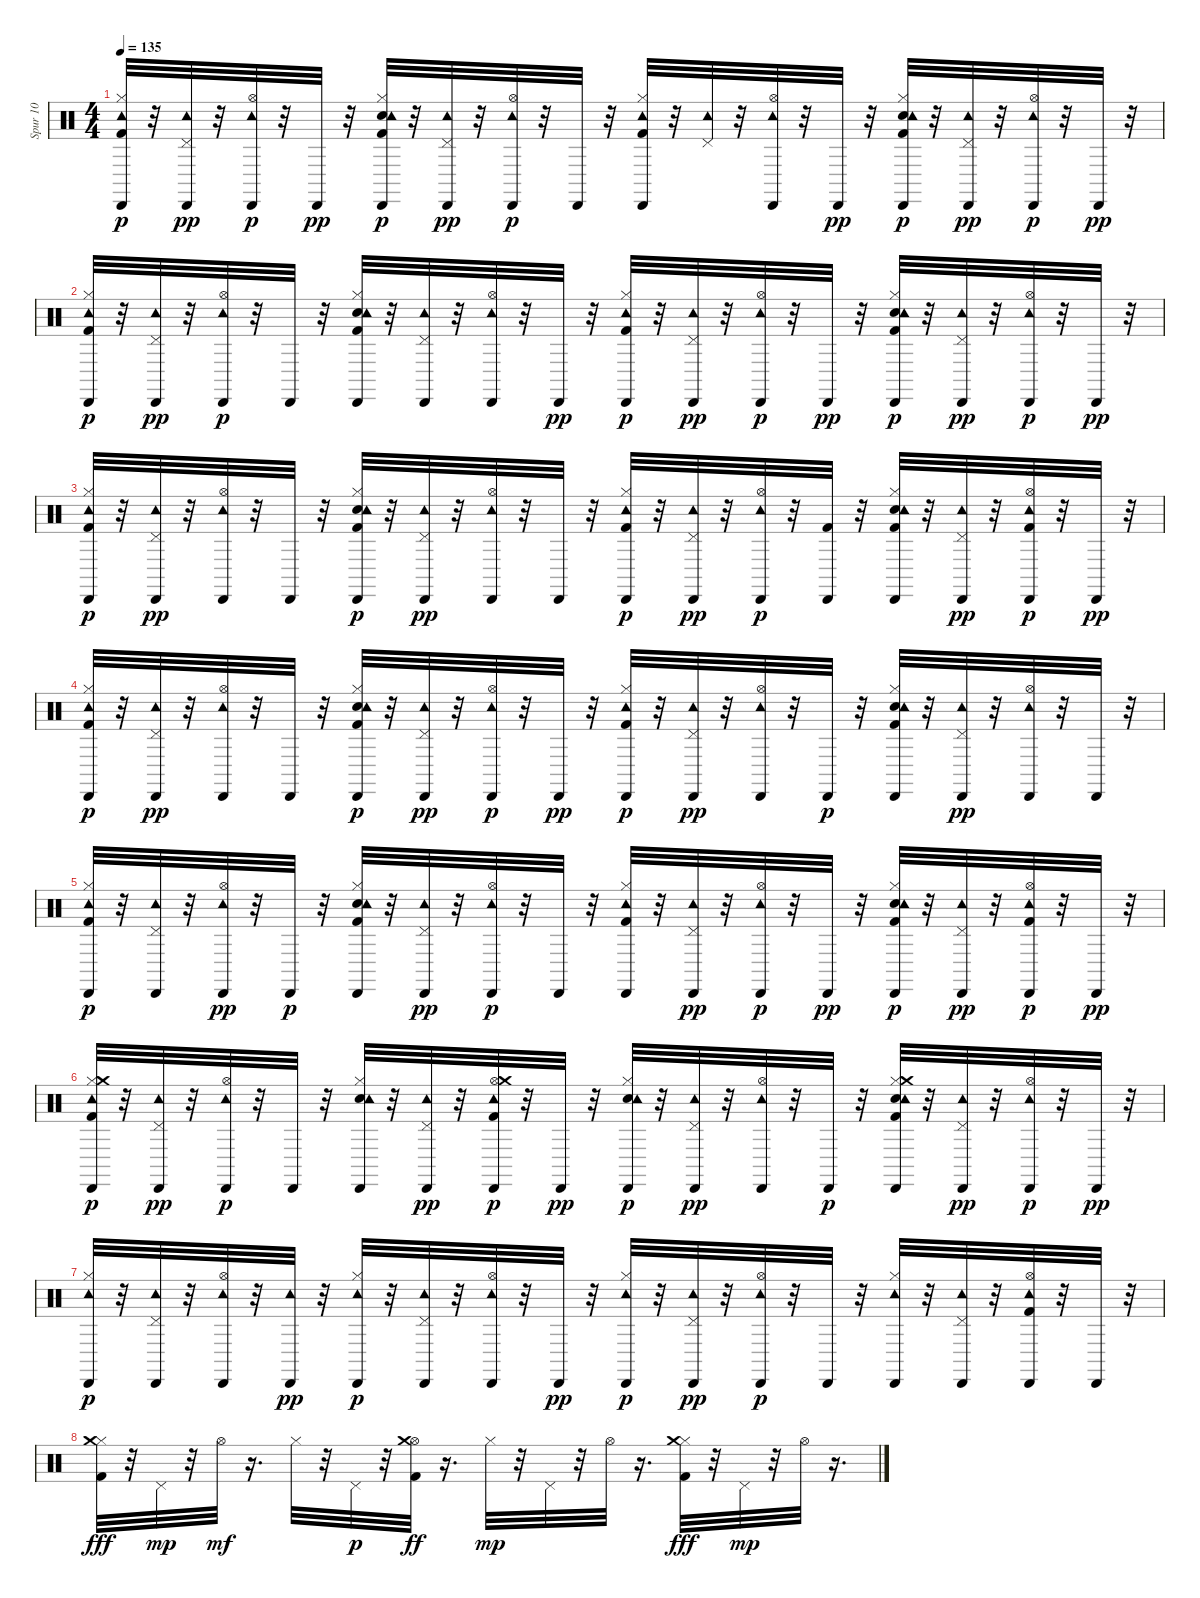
\track ("Spur 10" "Spur 10") {instrument percussion}
\staff {score}
\articulation defaults
\ts (4 4)
\tempo 135
\clef neutral
\ks c
("Kick (hit) 2" "Hi-Hat (closed)" "Tambourine (hit)" "Cabasa (hit)").32{dy p} r.32 ("Pedal Hi-Hat (hit)" "Tambourine (hit)" "Cabasa (hit)").32{dy pp} r.32 ("Hi-Hat (open)" "Tambourine (hit)" "Cabasa (hit)").32{dy p} r.32 "Cabasa (hit)".32{dy pp} r.32 ("Kick (hit) 2" "Snare (hit) 2" "Hi-Hat (closed)" "Tambourine (hit)" "Cabasa (hit)").32{dy p} r.32 ("Pedal Hi-Hat (hit)" "Tambourine (hit)" "Cabasa (hit)").32{dy pp} r.32 ("Hi-Hat (open)" "Tambourine (hit)" "Cabasa (hit)").32{dy p} r.32 "Cabasa (hit)".32 r.32 ("Kick (hit) 2" "Hi-Hat (closed)" "Tambourine (hit)" "Cabasa (hit)").32 r.32 ("Pedal Hi-Hat (hit)" "Tambourine (hit)").32 r.32 ("Hi-Hat (open)" "Tambourine (hit)" "Cabasa (hit)").32 r.32 "Cabasa (hit)".32{dy pp} r.32 ("Kick (hit) 2" "Snare (hit) 2" "Hi-Hat (closed)" "Tambourine (hit)" "Cabasa (hit)").32{dy p} r.32 ("Pedal Hi-Hat (hit)" "Tambourine (hit)" "Cabasa (hit)").32{dy pp} r.32 ("Hi-Hat (open)" "Tambourine (hit)" "Cabasa (hit)").32{dy p} r.32 "Cabasa (hit)".32{dy pp} r.32 |
("Kick (hit) 2" "Hi-Hat (closed)" "Tambourine (hit)" "Cabasa (hit)").32{dy p} r.32 ("Pedal Hi-Hat (hit)" "Tambourine (hit)" "Cabasa (hit)").32{dy pp} r.32 ("Hi-Hat (open)" "Tambourine (hit)" "Cabasa (hit)").32{dy p} r.32 "Cabasa (hit)".32 r.32 ("Kick (hit) 2" "Snare (hit) 2" "Hi-Hat (closed)" "Tambourine (hit)" "Cabasa (hit)").32 r.32 ("Pedal Hi-Hat (hit)" "Tambourine (hit)" "Cabasa (hit)").32 r.32 ("Hi-Hat (open)" "Tambourine (hit)" "Cabasa (hit)").32 r.32 "Cabasa (hit)".32{dy pp} r.32 ("Kick (hit) 2" "Hi-Hat (closed)" "Tambourine (hit)" "Cabasa (hit)").32{dy p} r.32 ("Pedal Hi-Hat (hit)" "Tambourine (hit)" "Cabasa (hit)").32{dy pp} r.32 ("Hi-Hat (open)" "Tambourine (hit)" "Cabasa (hit)").32{dy p} r.32 "Cabasa (hit)".32{dy pp} r.32 ("Kick (hit) 2" "Snare (hit) 2" "Hi-Hat (closed)" "Tambourine (hit)" "Cabasa (hit)").32{dy p} r.32 ("Pedal Hi-Hat (hit)" "Tambourine (hit)" "Cabasa (hit)").32{dy pp} r.32 ("Hi-Hat (open)" "Tambourine (hit)" "Cabasa (hit)").32{dy p} r.32 "Cabasa (hit)".32{dy pp} r.32 |
("Kick (hit) 2" "Hi-Hat (closed)" "Tambourine (hit)" "Cabasa (hit)").32{dy p} r.32 ("Pedal Hi-Hat (hit)" "Tambourine (hit)" "Cabasa (hit)").32{dy pp} r.32 ("Hi-Hat (open)" "Tambourine (hit)" "Cabasa (hit)").32 r.32 "Cabasa (hit)".32 r.32 ("Kick (hit) 2" "Snare (hit) 2" "Hi-Hat (closed)" "Tambourine (hit)" "Cabasa (hit)").32{dy p} r.32 ("Pedal Hi-Hat (hit)" "Tambourine (hit)" "Cabasa (hit)").32{dy pp} r.32 ("Hi-Hat (open)" "Tambourine (hit)" "Cabasa (hit)").32 r.32 "Cabasa (hit)".32 r.32 ("Kick (hit) 2" "Hi-Hat (closed)" "Tambourine (hit)" "Cabasa (hit)").32{dy p} r.32 ("Pedal Hi-Hat (hit)" "Tambourine (hit)" "Cabasa (hit)").32{dy pp} r.32 ("Hi-Hat (open)" "Tambourine (hit)" "Cabasa (hit)").32{dy p} r.32 ("Kick (hit) 2" "Cabasa (hit)").32 r.32 ("Kick (hit) 2" "Snare (hit) 2" "Hi-Hat (closed)" "Tambourine (hit)" "Cabasa (hit)").32 r.32 ("Pedal Hi-Hat (hit)" "Tambourine (hit)" "Cabasa (hit)").32{dy pp} r.32 ("Kick (hit) 2" "Hi-Hat (open)" "Tambourine (hit)" "Cabasa (hit)").32{dy p} r.32 "Cabasa (hit)".32{dy pp} r.32 |
("Kick (hit) 2" "Hi-Hat (closed)" "Tambourine (hit)" "Cabasa (hit)").32{dy p} r.32 ("Pedal Hi-Hat (hit)" "Tambourine (hit)" "Cabasa (hit)").32{dy pp} r.32 ("Hi-Hat (open)" "Tambourine (hit)" "Cabasa (hit)").32 r.32 "Cabasa (hit)".32 r.32 ("Kick (hit) 2" "Snare (hit) 2" "Hi-Hat (closed)" "Tambourine (hit)" "Cabasa (hit)").32{dy p} r.32 ("Pedal Hi-Hat (hit)" "Tambourine (hit)" "Cabasa (hit)").32{dy pp} r.32 ("Hi-Hat (open)" "Tambourine (hit)" "Cabasa (hit)").32{dy p} r.32 "Cabasa (hit)".32{dy pp} r.32 ("Kick (hit) 2" "Hi-Hat (closed)" "Tambourine (hit)" "Cabasa (hit)").32{dy p} r.32 ("Pedal Hi-Hat (hit)" "Tambourine (hit)" "Cabasa (hit)").32{dy pp} r.32 ("Hi-Hat (open)" "Tambourine (hit)" "Cabasa (hit)").32 r.32 "Cabasa (hit)".32{dy p} r.32 ("Kick (hit) 2" "Snare (hit) 2" "Hi-Hat (closed)" "Tambourine (hit)" "Cabasa (hit)").32 r.32 ("Pedal Hi-Hat (hit)" "Tambourine (hit)" "Cabasa (hit)").32{dy pp} r.32 ("Hi-Hat (open)" "Tambourine (hit)" "Cabasa (hit)").32 r.32 "Cabasa (hit)".32 r.32 |
("Kick (hit) 2" "Hi-Hat (closed)" "Tambourine (hit)" "Cabasa (hit)").32{dy p} r.32 ("Pedal Hi-Hat (hit)" "Tambourine (hit)" "Cabasa (hit)").32 r.32 ("Hi-Hat (open)" "Tambourine (hit)" "Cabasa (hit)").32{dy pp} r.32 "Cabasa (hit)".32{dy p} r.32 ("Kick (hit) 2" "Snare (hit) 2" "Hi-Hat (closed)" "Tambourine (hit)" "Cabasa (hit)").32 r.32 ("Pedal Hi-Hat (hit)" "Tambourine (hit)" "Cabasa (hit)").32{dy pp} r.32 ("Hi-Hat (open)" "Tambourine (hit)" "Cabasa (hit)").32{dy p} r.32 "Cabasa (hit)".32 r.32 ("Kick (hit) 2" "Hi-Hat (closed)" "Tambourine (hit)" "Cabasa (hit)").32 r.32 ("Pedal Hi-Hat (hit)" "Tambourine (hit)" "Cabasa (hit)").32{dy pp} r.32 ("Hi-Hat (open)" "Tambourine (hit)" "Cabasa (hit)").32{dy p} r.32 "Cabasa (hit)".32{dy pp} r.32 ("Kick (hit) 2" "Snare (hit) 2" "Hi-Hat (closed)" "Tambourine (hit)" "Cabasa (hit)").32{dy p} r.32 ("Pedal Hi-Hat (hit)" "Tambourine (hit)" "Cabasa (hit)").32{dy pp} r.32 ("Kick (hit) 2" "Hi-Hat (open)" "Tambourine (hit)" "Cabasa (hit)").32{dy p} r.32 "Cabasa (hit)".32{dy pp} r.32 |
("Kick (hit) 2" "Hi-Hat (closed)" "Tambourine (hit)" "Crash medium (hit)" "Cabasa (hit)").32{dy p} r.32 ("Pedal Hi-Hat (hit)" "Tambourine (hit)" "Cabasa (hit)").32{dy pp} r.32 ("Hi-Hat (open)" "Tambourine (hit)" "Cabasa (hit)").32{dy p} r.32 "Cabasa (hit)".32 r.32 ("Snare (hit) 2" "Hi-Hat (closed)" "Tambourine (hit)" "Cabasa (hit)").32 r.32 ("Pedal Hi-Hat (hit)" "Tambourine (hit)" "Cabasa (hit)").32{dy pp} r.32 ("Kick (hit) 2" "Hi-Hat (open)" "Tambourine (hit)" "Crash medium (hit)" "Cabasa (hit)").32{dy p} r.32 "Cabasa (hit)".32{dy pp} r.32 ("Snare (hit) 2" "Hi-Hat (closed)" "Tambourine (hit)" "Cabasa (hit)").32{dy p} r.32 ("Pedal Hi-Hat (hit)" "Tambourine (hit)" "Cabasa (hit)").32{dy pp} r.32 ("Hi-Hat (open)" "Tambourine (hit)" "Cabasa (hit)").32 r.32 "Cabasa (hit)".32{dy p} r.32 ("Kick (hit) 2" "Snare (hit) 2" "Hi-Hat (closed)" "Tambourine (hit)" "Crash medium (hit)" "Cabasa (hit)").32 r.32 ("Pedal Hi-Hat (hit)" "Tambourine (hit)" "Cabasa (hit)").32{dy pp} r.32 ("Hi-Hat (open)" "Tambourine (hit)" "Cabasa (hit)").32{dy p} r.32 "Cabasa (hit)".32{dy pp} r.32 |
("Hi-Hat (closed)" "Tambourine (hit)" "Cabasa (hit)").32{dy p} r.32 ("Pedal Hi-Hat (hit)" "Tambourine (hit)" "Cabasa (hit)").32 r.32 ("Hi-Hat (open)" "Tambourine (hit)" "Cabasa (hit)").32 r.32 ("Tambourine (hit)" "Cabasa (hit)").32{dy pp} r.32 ("Hi-Hat (closed)" "Tambourine (hit)" "Cabasa (hit)").32{dy p} r.32 ("Pedal Hi-Hat (hit)" "Tambourine (hit)" "Cabasa (hit)").32 r.32 ("Hi-Hat (open)" "Tambourine (hit)" "Cabasa (hit)").32 r.32 "Cabasa (hit)".32{dy pp} r.32 ("Hi-Hat (closed)" "Tambourine (hit)" "Cabasa (hit)").32{dy p} r.32 ("Pedal Hi-Hat (hit)" "Tambourine (hit)" "Cabasa (hit)").32{dy pp} r.32 ("Hi-Hat (open)" "Tambourine (hit)" "Cabasa (hit)").32{dy p} r.32 "Cabasa (hit)".32 r.32 ("Hi-Hat (closed)" "Tambourine (hit)" "Cabasa (hit)").32 r.32 ("Pedal Hi-Hat (hit)" "Tambourine (hit)" "Cabasa (hit)").32 r.32 ("Kick (hit) 2" "Hi-Hat (open)" "Tambourine (hit)" "Cabasa (hit)").32 r.32 "Cabasa (hit)".32 r.32 |
("Kick (hit) 2" "Hi-Hat (closed)" "Crash medium (hit)").32{dy fff} r.32 "Pedal Hi-Hat (hit)".32{dy mp} r.32 "Hi-Hat (open)".32{dy mf} r.16{d} "Hi-Hat (closed)".32 r.32 "Pedal Hi-Hat (hit)".32{dy p} r.32 ("Kick (hit) 2" "Hi-Hat (open)" "Crash medium (hit)").32{dy ff} r.16{d} "Hi-Hat (closed)".32{dy mp} r.32 "Pedal Hi-Hat (hit)".32 r.32 "Hi-Hat (open)".32 r.16{d} ("Kick (hit) 2" "Hi-Hat (closed)" "Crash medium (hit)").32{dy fff} r.32 "Pedal Hi-Hat (hit)".32{dy mp} r.32 "Hi-Hat (open)".32 r.16{d}
